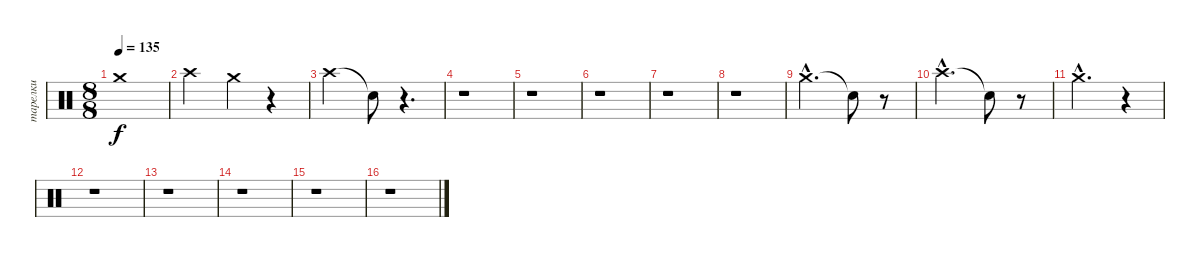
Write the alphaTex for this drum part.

\track ("тарелки" "тарелки") {instrument percussion}
\staff {score}
\articulation defaults
\ts (8 8)
\tempo 135
\clef neutral
\ks c "Crash medium (hit)".1{dy f}
|
"Crash high (hit)".2 "Crash medium (hit)".4 r.4 |
"Crash high (hit)".2 "Snare (hit)"{t}.8 r.4{d} |
r.1 |
r.1 |
r.1 |
r.1 |
r.1 |
"Crash medium (hit)"{hac}.2{d} "Snare (hit)"{t}.8 r.8 |
"Crash high (hit)"{hac}.2{d} "Snare (hit)"{t}.8 r.8 |
"Crash medium (hit)"{hac}.2{d} r.4 |
r.1 |
r.1 |
r.1 |
r.1 |
r.1
